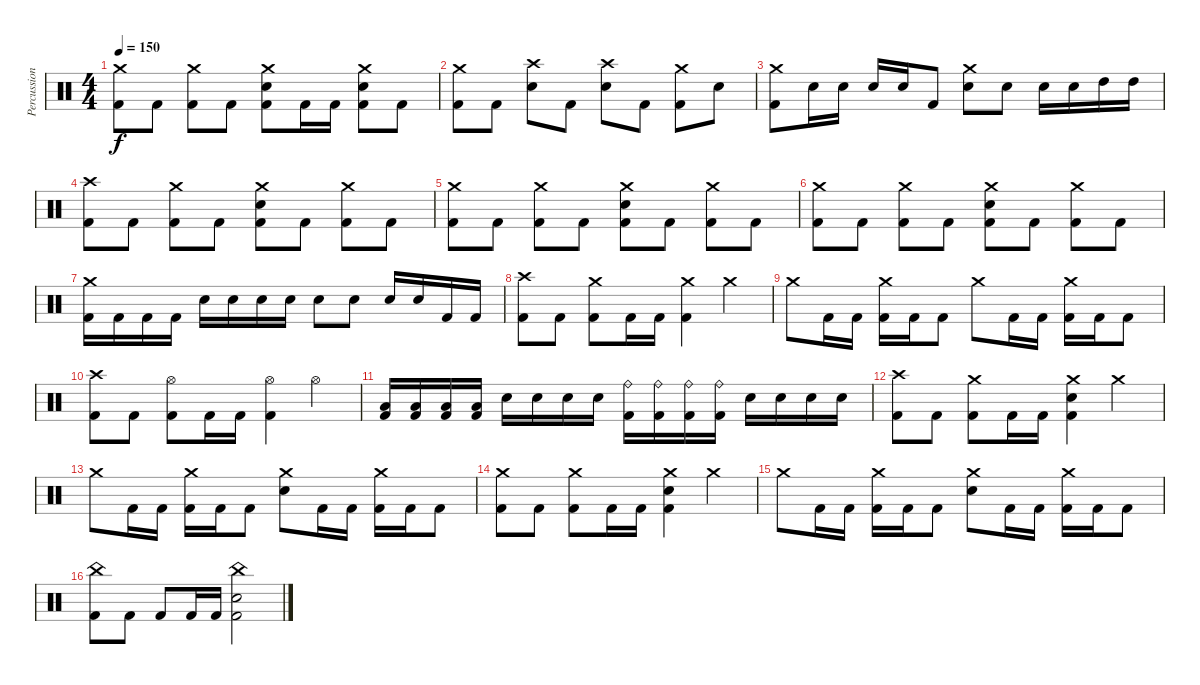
\track ("Percussion" "Percussion") {instrument percussion}
\staff {score}
\articulation defaults
\ts (4 4)
\tempo 150
\clef neutral
\ks c
("Crash medium (hit)" "Kick (hit) 2").8{dy f} "Kick (hit) 2".8 ("Crash medium (hit)" "Kick (hit) 2").8 "Kick (hit) 2".8 ("Crash medium (hit)" "Electric Snare (hit)" "Kick (hit) 2").8 "Kick (hit) 2".16 "Kick (hit) 2".16 ("Crash medium (hit)" "Electric Snare (hit)" "Kick (hit) 2").8 "Kick (hit) 2".8 |
("Crash medium (hit)" "Kick (hit) 2").8 "Kick (hit) 2".8 ("Crash high (hit)" "Electric Snare (hit)").8 "Kick (hit) 2".8 ("Crash high (hit)" "Electric Snare (hit)").8 "Kick (hit) 2".8 ("Crash medium (hit)" "Kick (hit) 2").8 "Electric Snare (hit)".8 |
("Crash medium (hit)" "Kick (hit) 2").8 "Electric Snare (hit)".16 "Electric Snare (hit)".16 "Electric Snare (hit)".16 "Electric Snare (hit)".16 "Kick (hit) 2".8 ("Crash medium (hit)" "Electric Snare (hit)").8 "Electric Snare (hit)".8 "Electric Snare (hit)".16 "Electric Snare (hit)".16 "High Tom (hit)".16 "High Tom (hit)".16 |
("Crash high (hit)" "Kick (hit) 2").8 "Kick (hit) 2".8 ("Crash medium (hit)" "Kick (hit) 2").8 "Kick (hit) 2".8 ("Crash medium (hit)" "Electric Snare (hit)" "Kick (hit) 2").8 "Kick (hit) 2".8 ("Crash medium (hit)" "Kick (hit) 2").8 "Kick (hit) 2".8 |
("Crash medium (hit)" "Kick (hit) 2").8 "Kick (hit) 2".8 ("Crash medium (hit)" "Kick (hit) 2").8 "Kick (hit) 2".8 ("Crash medium (hit)" "Electric Snare (hit)" "Kick (hit) 2").8 "Kick (hit) 2".8 ("Crash medium (hit)" "Kick (hit) 2").8 "Kick (hit) 2".8 |
("Crash medium (hit)" "Kick (hit) 2").8 "Kick (hit) 2".8 ("Crash medium (hit)" "Kick (hit) 2").8 "Kick (hit) 2".8 ("Crash medium (hit)" "Electric Snare (hit)" "Kick (hit) 2").8 "Kick (hit) 2".8 ("Crash medium (hit)" "Kick (hit) 2").8 "Kick (hit) 2".8 |
("Crash medium (hit)" "Kick (hit) 2").16 "Kick (hit) 2".16 "Kick (hit) 2".16 "Kick (hit) 2".16 "Electric Snare (hit)".16 "Electric Snare (hit)".16 "Electric Snare (hit)".16 "Electric Snare (hit)".16 "Electric Snare (hit)".8 "Electric Snare (hit)".8 "Electric Snare (hit)".16 "Electric Snare (hit)".16 "Kick (hit) 2".16 "Kick (hit) 2".16 |
("Crash high (hit)" "Kick (hit) 2").8 "Kick (hit) 2".8 ("Crash medium (hit)" "Kick (hit) 2").8 "Kick (hit) 2".16 "Kick (hit) 2".16 ("Crash medium (hit)" "Kick (hit) 2").4 "Crash medium (hit)".4 |
"Crash medium (hit)".8 "Kick (hit) 2".16 "Kick (hit) 2".16 ("Crash medium (hit)" "Kick (hit) 2").16 "Kick (hit) 2".16 "Kick (hit) 2".8 "Crash medium (hit)".8 "Kick (hit) 2".16 "Kick (hit) 2".16 ("Crash medium (hit)" "Kick (hit) 2").16 "Kick (hit) 2".16 "Kick (hit) 2".8 |
("Crash high (hit)" "Kick (hit) 2").8 "Kick (hit) 2".8 ("Hi-Hat (open)" "Kick (hit) 2").8 "Kick (hit) 2".16 "Kick (hit) 2".16 ("Hi-Hat (open)" "Kick (hit) 2").4 "Hi-Hat (open)".4 |
("Low Tom (hit)" "Kick (hit) 2").16 ("Low Tom (hit)" "Kick (hit) 2").16 ("Low Tom (hit)" "Kick (hit) 2").16 ("Low Tom (hit)" "Kick (hit) 2").16 "Electric Snare (hit)".16 "Electric Snare (hit)".16 "Electric Snare (hit)".16 "Electric Snare (hit)".16 ("Ride (bell)" "Kick (hit) 2").16 ("Ride (bell)" "Kick (hit) 2").16 ("Ride (bell)" "Kick (hit) 2").16 ("Ride (bell)" "Kick (hit) 2").16 "Electric Snare (hit)".16 "Electric Snare (hit)".16 "Electric Snare (hit)".16 "Electric Snare (hit)".16 |
("Crash high (hit)" "Kick (hit) 2").8 "Kick (hit) 2".8 ("Crash medium (hit)" "Kick (hit) 2").8 "Kick (hit) 2".16 "Kick (hit) 2".16 ("Crash medium (hit)" "Electric Snare (hit)" "Kick (hit) 2").4 "Crash medium (hit)".4 |
"Crash medium (hit)".8 "Kick (hit) 2".16 "Kick (hit) 2".16 ("Crash medium (hit)" "Kick (hit) 2").16 "Kick (hit) 2".16 "Kick (hit) 2".8 ("Crash medium (hit)" "Electric Snare (hit)").8 "Kick (hit) 2".16 "Kick (hit) 2".16 ("Crash medium (hit)" "Kick (hit) 2").16 "Kick (hit) 2".16 "Kick (hit) 2".8 |
("Crash medium (hit)" "Kick (hit) 2").8 "Kick (hit) 2".8 ("Crash medium (hit)" "Kick (hit) 2").8 "Kick (hit) 2".16 "Kick (hit) 2".16 ("Crash medium (hit)" "Electric Snare (hit)" "Kick (hit) 2").4 "Crash medium (hit)".4 |
"Crash medium (hit)".8 "Kick (hit) 2".16 "Kick (hit) 2".16 ("Crash medium (hit)" "Kick (hit) 2").16 "Kick (hit) 2".16 "Kick (hit) 2".8 ("Crash medium (hit)" "Electric Snare (hit)").8 "Kick (hit) 2".16 "Kick (hit) 2".16 ("Crash medium (hit)" "Kick (hit) 2").16 "Kick (hit) 2".16 "Kick (hit) 2".8 |
("China (hit)" "Kick (hit) 2").8 "Kick (hit) 2".8 "Kick (hit) 2".8 "Kick (hit) 2".16 "Kick (hit) 2".16 ("China (hit)" "Electric Snare (hit)" "Kick (hit) 2").2
